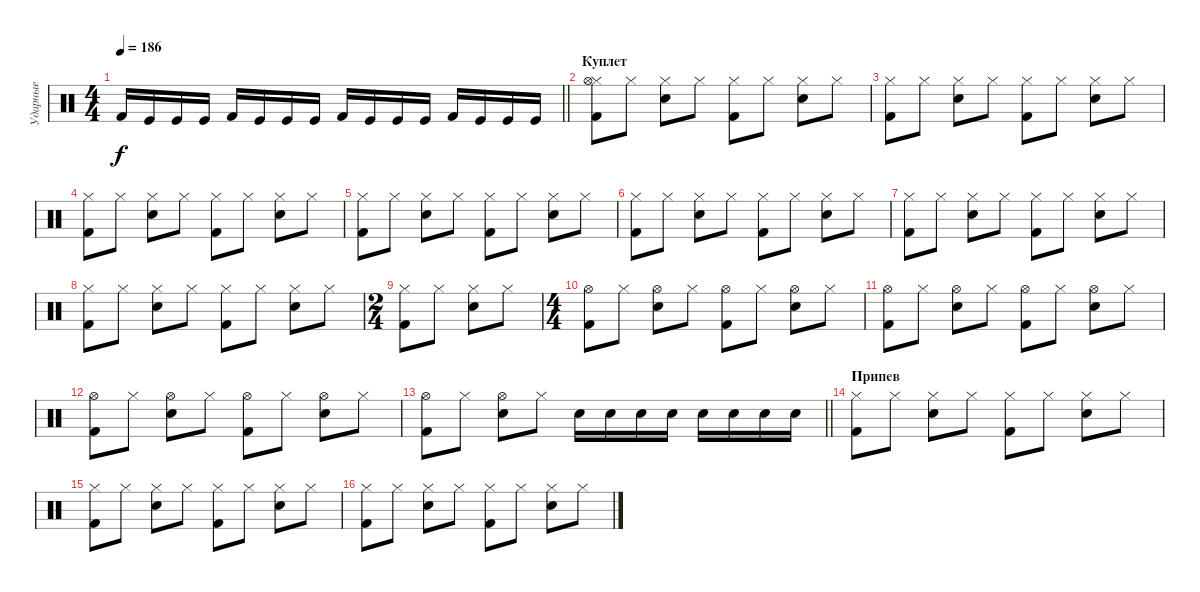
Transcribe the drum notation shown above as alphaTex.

\track ("Ударные" "Ударные") {instrument percussion}
\staff {score}
\articulation defaults
\ts (4 4)
\tempo 186
\clef neutral
\barLineRight lightlight
\ks c "Kick (hit) 2".16{dy f} "Kick (hit)".16 "Kick (hit)".16 "Kick (hit)".16 "Kick (hit) 2".16 "Kick (hit)".16 "Kick (hit)".16 "Kick (hit)".16 "Kick (hit) 2".16 "Kick (hit)".16 "Kick (hit)".16 "Kick (hit)".16 "Kick (hit) 2".16 "Kick (hit)".16 "Kick (hit)".16 "Kick (hit)".16
|
\section ("" "Куплет")
("Kick (hit) 2" "Hi-Hat (closed)" "Hi-Hat (open)").8 "Hi-Hat (closed)".8 ("Snare (hit) 2" "Hi-Hat (closed)").8 "Hi-Hat (closed)".8 ("Kick (hit) 2" "Hi-Hat (closed)").8 "Hi-Hat (closed)".8 ("Snare (hit) 2" "Hi-Hat (closed)").8 "Hi-Hat (closed)".8 |
("Kick (hit) 2" "Hi-Hat (closed)").8 "Hi-Hat (closed)".8 ("Snare (hit) 2" "Hi-Hat (closed)").8 "Hi-Hat (closed)".8 ("Kick (hit) 2" "Hi-Hat (closed)").8 "Hi-Hat (closed)".8 ("Snare (hit) 2" "Hi-Hat (closed)").8 "Hi-Hat (closed)".8 |
("Kick (hit) 2" "Hi-Hat (closed)").8 "Hi-Hat (closed)".8 ("Snare (hit) 2" "Hi-Hat (closed)").8 "Hi-Hat (closed)".8 ("Kick (hit) 2" "Hi-Hat (closed)").8 "Hi-Hat (closed)".8 ("Snare (hit) 2" "Hi-Hat (closed)").8 "Hi-Hat (closed)".8 |
("Kick (hit) 2" "Hi-Hat (closed)").8 "Hi-Hat (closed)".8 ("Snare (hit) 2" "Hi-Hat (closed)").8 "Hi-Hat (closed)".8 ("Kick (hit) 2" "Hi-Hat (closed)").8 "Hi-Hat (closed)".8 ("Snare (hit) 2" "Hi-Hat (closed)").8 "Hi-Hat (closed)".8 |
("Kick (hit) 2" "Hi-Hat (closed)").8 "Hi-Hat (closed)".8 ("Snare (hit) 2" "Hi-Hat (closed)").8 "Hi-Hat (closed)".8 ("Kick (hit) 2" "Hi-Hat (closed)").8 "Hi-Hat (closed)".8 ("Snare (hit) 2" "Hi-Hat (closed)").8 "Hi-Hat (closed)".8 |
("Kick (hit) 2" "Hi-Hat (closed)").8 "Hi-Hat (closed)".8 ("Snare (hit) 2" "Hi-Hat (closed)").8 "Hi-Hat (closed)".8 ("Kick (hit) 2" "Hi-Hat (closed)").8 "Hi-Hat (closed)".8 ("Snare (hit) 2" "Hi-Hat (closed)").8 "Hi-Hat (closed)".8 |
("Kick (hit) 2" "Hi-Hat (closed)").8 "Hi-Hat (closed)".8 ("Snare (hit) 2" "Hi-Hat (closed)").8 "Hi-Hat (closed)".8 ("Kick (hit) 2" "Hi-Hat (closed)").8 "Hi-Hat (closed)".8 ("Snare (hit) 2" "Hi-Hat (closed)").8 "Hi-Hat (closed)".8 |
\ts (2 4)
("Kick (hit) 2" "Hi-Hat (closed)").8 "Hi-Hat (closed)".8 ("Snare (hit) 2" "Hi-Hat (closed)").8 "Hi-Hat (closed)".8 |
\ts (4 4)
("Kick (hit) 2" "Hi-Hat (open)").8 "Hi-Hat (closed)".8 ("Snare (hit) 2" "Hi-Hat (open)").8 "Hi-Hat (closed)".8 ("Kick (hit) 2" "Hi-Hat (open)").8 "Hi-Hat (closed)".8 ("Snare (hit) 2" "Hi-Hat (open)").8 "Hi-Hat (closed)".8 |
("Kick (hit) 2" "Hi-Hat (open)").8 "Hi-Hat (closed)".8 ("Snare (hit) 2" "Hi-Hat (open)").8 "Hi-Hat (closed)".8 ("Kick (hit) 2" "Hi-Hat (open)").8 "Hi-Hat (closed)".8 ("Snare (hit) 2" "Hi-Hat (open)").8 "Hi-Hat (closed)".8 |
("Kick (hit) 2" "Hi-Hat (open)").8 "Hi-Hat (closed)".8 ("Snare (hit) 2" "Hi-Hat (open)").8 "Hi-Hat (closed)".8 ("Kick (hit) 2" "Hi-Hat (open)").8 "Hi-Hat (closed)".8 ("Snare (hit) 2" "Hi-Hat (open)").8 "Hi-Hat (closed)".8 |
\barLineRight lightlight
("Kick (hit) 2" "Hi-Hat (open)").8 "Hi-Hat (closed)".8 ("Snare (hit) 2" "Hi-Hat (open)").8 "Hi-Hat (closed)".8 "Electric Snare (hit)".16 "Electric Snare (hit)".16 "Electric Snare (hit)".16 "Electric Snare (hit)".16 "Electric Snare (hit)".16 "Electric Snare (hit)".16 "Electric Snare (hit)".16 "Electric Snare (hit)".16 |
\section ("" "Припев")
("Kick (hit) 2" "Hi-Hat (closed)").8 "Hi-Hat (closed)".8 ("Snare (hit) 2" "Hi-Hat (closed)").8 "Hi-Hat (closed)".8 ("Kick (hit) 2" "Hi-Hat (closed)").8 "Hi-Hat (closed)".8 ("Snare (hit) 2" "Hi-Hat (closed)").8 "Hi-Hat (closed)".8 |
("Kick (hit) 2" "Hi-Hat (closed)").8 "Hi-Hat (closed)".8 ("Snare (hit) 2" "Hi-Hat (closed)").8 "Hi-Hat (closed)".8 ("Kick (hit) 2" "Hi-Hat (closed)").8 "Hi-Hat (closed)".8 ("Snare (hit) 2" "Hi-Hat (closed)").8 "Hi-Hat (closed)".8 |
("Kick (hit) 2" "Hi-Hat (closed)").8 "Hi-Hat (closed)".8 ("Snare (hit) 2" "Hi-Hat (closed)").8 "Hi-Hat (closed)".8 ("Kick (hit) 2" "Hi-Hat (closed)").8 "Hi-Hat (closed)".8 ("Snare (hit) 2" "Hi-Hat (closed)").8 "Hi-Hat (closed)".8
